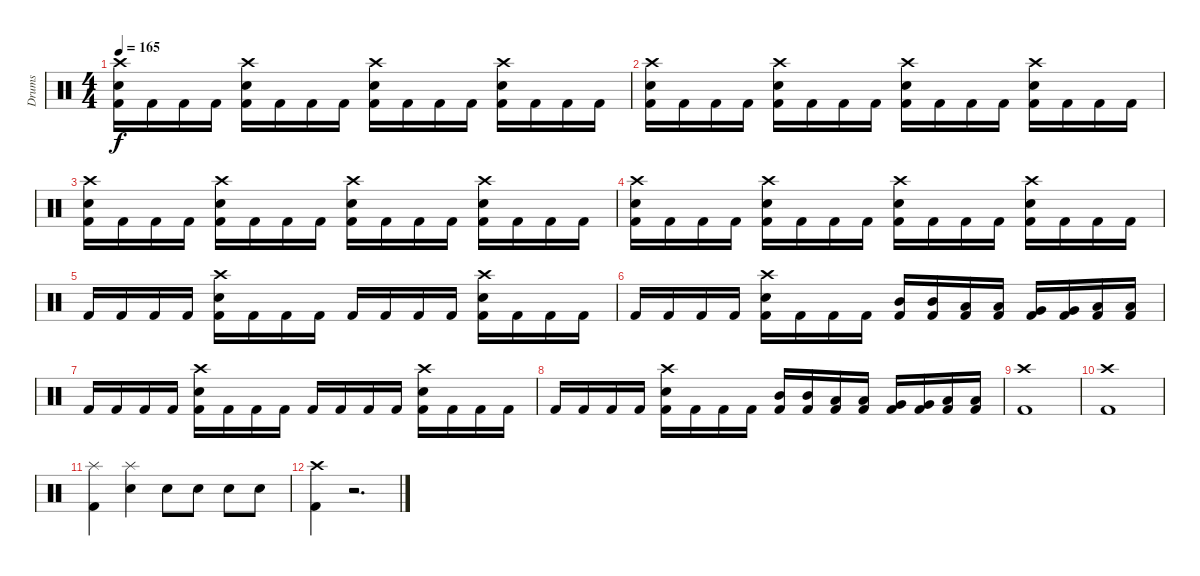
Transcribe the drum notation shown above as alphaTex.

\track ("Drums" "Drums") {instrument percussion}
\staff {score}
\articulation defaults
\ts (4 4)
\tempo 165
\clef neutral
\ks c
("Kick (hit) 2" "Snare (hit) 2" "Crash high (hit)").16{dy f} "Kick (hit) 2".16 "Kick (hit) 2".16 "Kick (hit) 2".16 ("Kick (hit) 2" "Snare (hit) 2" "Crash high (hit)").16 "Kick (hit) 2".16 "Kick (hit) 2".16 "Kick (hit) 2".16 ("Kick (hit) 2" "Snare (hit) 2" "Crash high (hit)").16 "Kick (hit) 2".16 "Kick (hit) 2".16 "Kick (hit) 2".16 ("Kick (hit) 2" "Snare (hit) 2" "Crash high (hit)").16 "Kick (hit) 2".16 "Kick (hit) 2".16 "Kick (hit) 2".16 |
("Kick (hit) 2" "Snare (hit) 2" "Crash high (hit)").16 "Kick (hit) 2".16 "Kick (hit) 2".16 "Kick (hit) 2".16 ("Kick (hit) 2" "Snare (hit) 2" "Crash high (hit)").16 "Kick (hit) 2".16 "Kick (hit) 2".16 "Kick (hit) 2".16 ("Kick (hit) 2" "Snare (hit) 2" "Crash high (hit)").16 "Kick (hit) 2".16 "Kick (hit) 2".16 "Kick (hit) 2".16 ("Kick (hit) 2" "Snare (hit) 2" "Crash high (hit)").16 "Kick (hit) 2".16 "Kick (hit) 2".16 "Kick (hit) 2".16 |
("Kick (hit) 2" "Snare (hit) 2" "Crash high (hit)").16 "Kick (hit) 2".16 "Kick (hit) 2".16 "Kick (hit) 2".16 ("Kick (hit) 2" "Snare (hit) 2" "Crash high (hit)").16 "Kick (hit) 2".16 "Kick (hit) 2".16 "Kick (hit) 2".16 ("Kick (hit) 2" "Snare (hit) 2" "Crash high (hit)").16 "Kick (hit) 2".16 "Kick (hit) 2".16 "Kick (hit) 2".16 ("Kick (hit) 2" "Snare (hit) 2" "Crash high (hit)").16 "Kick (hit) 2".16 "Kick (hit) 2".16 "Kick (hit) 2".16 |
("Kick (hit) 2" "Snare (hit) 2" "Crash high (hit)").16 "Kick (hit) 2".16 "Kick (hit) 2".16 "Kick (hit) 2".16 ("Kick (hit) 2" "Snare (hit) 2" "Crash high (hit)").16 "Kick (hit) 2".16 "Kick (hit) 2".16 "Kick (hit) 2".16 ("Kick (hit) 2" "Snare (hit) 2" "Crash high (hit)").16 "Kick (hit) 2".16 "Kick (hit) 2".16 "Kick (hit) 2".16 ("Kick (hit) 2" "Snare (hit) 2" "Crash high (hit)").16 "Kick (hit) 2".16 "Kick (hit) 2".16 "Kick (hit) 2".16 |
"Kick (hit) 2".16 "Kick (hit) 2".16 "Kick (hit) 2".16 "Kick (hit) 2".16 ("Kick (hit) 2" "Snare (hit) 2" "Crash high (hit)").16 "Kick (hit) 2".16 "Kick (hit) 2".16 "Kick (hit) 2".16 "Kick (hit) 2".16 "Kick (hit) 2".16 "Kick (hit) 2".16 "Kick (hit) 2".16 ("Kick (hit) 2" "Snare (hit) 2" "Crash high (hit)").16 "Kick (hit) 2".16 "Kick (hit) 2".16 "Kick (hit) 2".16 |
"Kick (hit) 2".16 "Kick (hit) 2".16 "Kick (hit) 2".16 "Kick (hit) 2".16 ("Kick (hit) 2" "Snare (hit) 2" "Crash high (hit)").16 "Kick (hit) 2".16 "Kick (hit) 2".16 "Kick (hit) 2".16 ("Kick (hit) 2" "Mid Tom (hit)").16 ("Kick (hit) 2" "Mid Tom (hit)").16 ("Kick (hit) 2" "Low Tom (hit)").16 ("Kick (hit) 2" "Low Tom (hit)").16 ("Kick (hit) 2" "Very Low Tom (hit)").16 ("Kick (hit) 2" "Very Low Tom (hit)").16 ("Kick (hit) 2" "Low Floor Tom (hit)").16 ("Kick (hit) 2" "Low Floor Tom (hit)").16 |
"Kick (hit) 2".16 "Kick (hit) 2".16 "Kick (hit) 2".16 "Kick (hit) 2".16 ("Kick (hit) 2" "Snare (hit) 2" "Crash high (hit)").16 "Kick (hit) 2".16 "Kick (hit) 2".16 "Kick (hit) 2".16 "Kick (hit) 2".16 "Kick (hit) 2".16 "Kick (hit) 2".16 "Kick (hit) 2".16 ("Kick (hit) 2" "Snare (hit) 2" "Crash high (hit)").16 "Kick (hit) 2".16 "Kick (hit) 2".16 "Kick (hit) 2".16 |
"Kick (hit) 2".16 "Kick (hit) 2".16 "Kick (hit) 2".16 "Kick (hit) 2".16 ("Kick (hit) 2" "Snare (hit) 2" "Crash high (hit)").16 "Kick (hit) 2".16 "Kick (hit) 2".16 "Kick (hit) 2".16 ("Kick (hit) 2" "Mid Tom (hit)").16 ("Kick (hit) 2" "Mid Tom (hit)").16 ("Kick (hit) 2" "Low Tom (hit)").16 ("Kick (hit) 2" "Low Tom (hit)").16 ("Kick (hit) 2" "Very Low Tom (hit)").16 ("Kick (hit) 2" "Very Low Tom (hit)").16 ("Kick (hit) 2" "Low Floor Tom (hit)").16 ("Kick (hit) 2" "Low Floor Tom (hit)").16 |
("Crash high (hit)" "Kick (hit) 2").1 |
("Crash high (hit)" "Kick (hit) 2").1 |
("Splash (hit)" "Kick (hit) 2").4 ("Splash (hit)" "Snare (hit) 2").4 "Snare (hit) 2".8 "Snare (hit) 2".8 "Snare (hit) 2".8 "Snare (hit) 2".8 |
("Crash high (hit)" "Kick (hit) 2").4 r.2{d}
